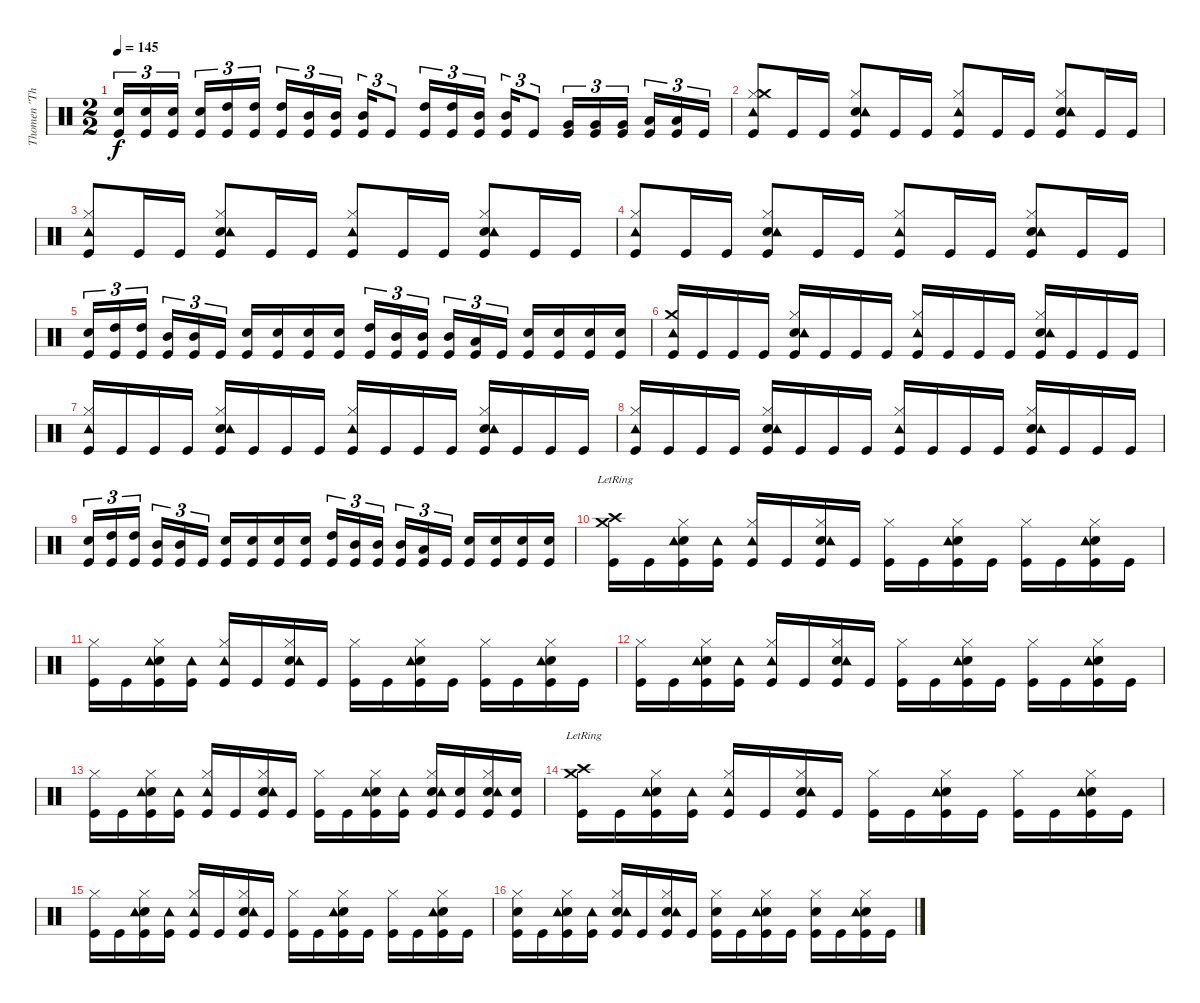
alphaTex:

\track ("Thomen \"The Omen\" Stauch" "Thomen \"Th") {instrument percussion}
\staff {score}
\articulation defaults
\ts (2 2)
\tempo 145
\clef neutral
\ks c
("Snare (hit) 2" "Kick (hit)").16{tu (3 2) dy f} ("Snare (hit) 2" "Kick (hit)").16{tu (3 2)} ("Snare (hit) 2" "Kick (hit)").16{tu (3 2)} ("Snare (hit) 2" "Kick (hit)").16{tu (3 2)} ("High Tom (hit)" "Kick (hit)").16{tu (3 2)} ("High Tom (hit)" "Kick (hit)").16{tu (3 2)} ("High Tom (hit)" "Kick (hit)").16{tu (3 2)} ("Mid Tom (hit)" "Kick (hit)").16{tu (3 2)} ("Mid Tom (hit)" "Kick (hit)").16{tu (3 2)} ("Mid Tom (hit)" "Kick (hit)").16{tu (3 2)} "Kick (hit)".8{tu (3 2)} ("High Tom (hit)" "Kick (hit)").16{tu (3 2)} ("High Tom (hit)" "Kick (hit)").16{tu (3 2)} ("Mid Tom (hit)" "Kick (hit)").16{tu (3 2)} ("Mid Tom (hit)" "Kick (hit)").16{tu (3 2)} "Kick (hit)".8{tu (3 2)} ("Very Low Tom (hit)" "Kick (hit)").16{tu (3 2)} ("Very Low Tom (hit)" "Kick (hit)").16{tu (3 2)} ("Very Low Tom (hit)" "Kick (hit)").16{tu (3 2)} ("Low Floor Tom (hit)" "Kick (hit)").16{tu (3 2)} ("Low Floor Tom (hit)" "Kick (hit)").16{tu (3 2)} "Kick (hit)".16{tu (3 2)} |
("Hi-Hat (closed)" "Crash medium (hit)" "Tambourine (hit)" "Kick (hit)").8 "Kick (hit)".16 "Kick (hit)".16 ("Hi-Hat (closed)" "Snare (hit) 2" "Tambourine (hit)" "Kick (hit)").8 "Kick (hit)".16 "Kick (hit)".16 ("Hi-Hat (closed)" "Tambourine (hit)" "Kick (hit)").8 "Kick (hit)".16 "Kick (hit)".16 ("Hi-Hat (closed)" "Snare (hit) 2" "Tambourine (hit)" "Kick (hit)").8 "Kick (hit)".16 "Kick (hit)".16 |
("Hi-Hat (closed)" "Tambourine (hit)" "Kick (hit)").8 "Kick (hit)".16 "Kick (hit)".16 ("Hi-Hat (closed)" "Snare (hit) 2" "Tambourine (hit)" "Kick (hit)").8 "Kick (hit)".16 "Kick (hit)".16 ("Hi-Hat (closed)" "Tambourine (hit)" "Kick (hit)").8 "Kick (hit)".16 "Kick (hit)".16 ("Hi-Hat (closed)" "Snare (hit) 2" "Tambourine (hit)" "Kick (hit)").8 "Kick (hit)".16 "Kick (hit)".16 |
("Hi-Hat (closed)" "Tambourine (hit)" "Kick (hit)").8 "Kick (hit)".16 "Kick (hit)".16 ("Hi-Hat (closed)" "Snare (hit) 2" "Tambourine (hit)" "Kick (hit)").8 "Kick (hit)".16 "Kick (hit)".16 ("Hi-Hat (closed)" "Tambourine (hit)" "Kick (hit)").8 "Kick (hit)".16 "Kick (hit)".16 ("Hi-Hat (closed)" "Snare (hit) 2" "Tambourine (hit)" "Kick (hit)").8 "Kick (hit)".16 "Kick (hit)".16 |
("Snare (hit) 2" "Kick (hit)").16{tu (3 2)} ("High Tom (hit)" "Kick (hit)").16{tu (3 2)} ("High Tom (hit)" "Kick (hit)").16{tu (3 2)} ("Mid Tom (hit)" "Kick (hit)").16{tu (3 2)} ("Mid Tom (hit)" "Kick (hit)").16{tu (3 2)} "Kick (hit)".16{tu (3 2)} ("Snare (hit) 2" "Kick (hit)").16 ("Snare (hit) 2" "Kick (hit)").16 ("Snare (hit) 2" "Kick (hit)").16 ("Snare (hit) 2" "Kick (hit)").16 ("High Tom (hit)" "Kick (hit)").16{tu (3 2)} ("Mid Tom (hit)" "Kick (hit)").16{tu (3 2)} ("Mid Tom (hit)" "Kick (hit)").16{tu (3 2)} ("Mid Tom (hit)" "Kick (hit)").16{tu (3 2)} ("Low Tom (hit)" "Kick (hit)").16{tu (3 2)} "Kick (hit)".16{tu (3 2)} ("Snare (hit) 2" "Kick (hit)").16 ("Snare (hit) 2" "Kick (hit)").16 ("Snare (hit) 2" "Kick (hit)").16 ("Snare (hit) 2" "Kick (hit)").16 |
("Crash medium (hit)" "Tambourine (hit)" "Kick (hit)").16 "Kick (hit)".16 "Kick (hit)".16 "Kick (hit)".16 ("Hi-Hat (closed)" "Snare (hit) 2" "Tambourine (hit)" "Kick (hit)").16 "Kick (hit)".16 "Kick (hit)".16 "Kick (hit)".16 ("Hi-Hat (closed)" "Tambourine (hit)" "Kick (hit)").16 "Kick (hit)".16 "Kick (hit)".16 "Kick (hit)".16 ("Hi-Hat (closed)" "Snare (hit) 2" "Tambourine (hit)" "Kick (hit)").16 "Kick (hit)".16 "Kick (hit)".16 "Kick (hit)".16 |
("Hi-Hat (closed)" "Tambourine (hit)" "Kick (hit)").16 "Kick (hit)".16 "Kick (hit)".16 "Kick (hit)".16 ("Hi-Hat (closed)" "Snare (hit) 2" "Tambourine (hit)" "Kick (hit)").16 "Kick (hit)".16 "Kick (hit)".16 "Kick (hit)".16 ("Hi-Hat (closed)" "Tambourine (hit)" "Kick (hit)").16 "Kick (hit)".16 "Kick (hit)".16 "Kick (hit)".16 ("Hi-Hat (closed)" "Snare (hit) 2" "Tambourine (hit)" "Kick (hit)").16 "Kick (hit)".16 "Kick (hit)".16 "Kick (hit)".16 |
("Hi-Hat (closed)" "Tambourine (hit)" "Kick (hit)").16 "Kick (hit)".16 "Kick (hit)".16 "Kick (hit)".16 ("Hi-Hat (closed)" "Snare (hit) 2" "Tambourine (hit)" "Kick (hit)").16 "Kick (hit)".16 "Kick (hit)".16 "Kick (hit)".16 ("Hi-Hat (closed)" "Tambourine (hit)" "Kick (hit)").16 "Kick (hit)".16 "Kick (hit)".16 "Kick (hit)".16 ("Hi-Hat (closed)" "Snare (hit) 2" "Tambourine (hit)" "Kick (hit)").16 "Kick (hit)".16 "Kick (hit)".16 "Kick (hit)".16 |
("Snare (hit) 2" "Kick (hit)").16{tu (3 2)} ("High Tom (hit)" "Kick (hit)").16{tu (3 2)} ("High Tom (hit)" "Kick (hit)").16{tu (3 2)} ("Mid Tom (hit)" "Kick (hit)").16{tu (3 2)} ("Mid Tom (hit)" "Kick (hit)").16{tu (3 2)} "Kick (hit)".16{tu (3 2)} ("Snare (hit) 2" "Kick (hit)").16 ("Snare (hit) 2" "Kick (hit)").16 ("Snare (hit) 2" "Kick (hit)").16 ("Snare (hit) 2" "Kick (hit)").16 ("High Tom (hit)" "Kick (hit)").16{tu (3 2)} ("Mid Tom (hit)" "Kick (hit)").16{tu (3 2)} ("Mid Tom (hit)" "Kick (hit)").16{tu (3 2)} ("Mid Tom (hit)" "Kick (hit)").16{tu (3 2)} ("Low Tom (hit)" "Kick (hit)").16{tu (3 2)} "Kick (hit)".16{tu (3 2)} ("Snare (hit) 2" "Kick (hit)").16 ("Snare (hit) 2" "Kick (hit)").16 ("Snare (hit) 2" "Kick (hit)").16 ("Snare (hit) 2" "Kick (hit)").16 |
("Crash medium (hit)"{lr} "Crash high (hit)"{lr} "Kick (hit)").16 "Kick (hit)".16 ("Hi-Hat (closed)" "Snare (hit) 2" "Tambourine (hit)" "Kick (hit)").16 ("Tambourine (hit)" "Kick (hit)").16 ("Hi-Hat (closed)" "Tambourine (hit)" "Kick (hit)").16 "Kick (hit)".16 ("Hi-Hat (closed)" "Snare (hit) 2" "Tambourine (hit)" "Kick (hit)").16 "Kick (hit)".16 ("Hi-Hat (closed)" "Kick (hit)").16 "Kick (hit)".16 ("Hi-Hat (closed)" "Snare (hit) 2" "Tambourine (hit)" "Kick (hit)").16 "Kick (hit)".16 ("Hi-Hat (closed)" "Kick (hit)").16 "Kick (hit)".16 ("Hi-Hat (closed)" "Snare (hit) 2" "Tambourine (hit)" "Kick (hit)").16 "Kick (hit)".16 |
("Hi-Hat (closed)" "Kick (hit)").16 "Kick (hit)".16 ("Hi-Hat (closed)" "Snare (hit) 2" "Tambourine (hit)" "Kick (hit)").16 ("Tambourine (hit)" "Kick (hit)").16 ("Hi-Hat (closed)" "Tambourine (hit)" "Kick (hit)").16 "Kick (hit)".16 ("Hi-Hat (closed)" "Snare (hit) 2" "Tambourine (hit)" "Kick (hit)").16 "Kick (hit)".16 ("Hi-Hat (closed)" "Kick (hit)").16 "Kick (hit)".16 ("Hi-Hat (closed)" "Snare (hit) 2" "Tambourine (hit)" "Kick (hit)").16 "Kick (hit)".16 ("Hi-Hat (closed)" "Kick (hit)").16 "Kick (hit)".16 ("Hi-Hat (closed)" "Snare (hit) 2" "Tambourine (hit)" "Kick (hit)").16 "Kick (hit)".16 |
("Hi-Hat (closed)" "Kick (hit)").16 "Kick (hit)".16 ("Hi-Hat (closed)" "Snare (hit) 2" "Tambourine (hit)" "Kick (hit)").16 ("Tambourine (hit)" "Kick (hit)").16 ("Hi-Hat (closed)" "Tambourine (hit)" "Kick (hit)").16 "Kick (hit)".16 ("Hi-Hat (closed)" "Snare (hit) 2" "Tambourine (hit)" "Kick (hit)").16 "Kick (hit)".16 ("Hi-Hat (closed)" "Kick (hit)").16 "Kick (hit)".16 ("Hi-Hat (closed)" "Snare (hit) 2" "Tambourine (hit)" "Kick (hit)").16 "Kick (hit)".16 ("Hi-Hat (closed)" "Kick (hit)").16 "Kick (hit)".16 ("Hi-Hat (closed)" "Snare (hit) 2" "Tambourine (hit)" "Kick (hit)").16 "Kick (hit)".16 |
("Hi-Hat (closed)" "Kick (hit)").16 "Kick (hit)".16 ("Hi-Hat (closed)" "Snare (hit) 2" "Tambourine (hit)" "Kick (hit)").16 ("Tambourine (hit)" "Kick (hit)").16 ("Hi-Hat (closed)" "Tambourine (hit)" "Kick (hit)").16 "Kick (hit)".16 ("Hi-Hat (closed)" "Snare (hit) 2" "Tambourine (hit)" "Kick (hit)").16 "Kick (hit)".16 ("Hi-Hat (closed)" "Kick (hit)").16 "Kick (hit)".16 ("Hi-Hat (closed)" "Snare (hit) 2" "Tambourine (hit)" "Kick (hit)").16 ("Tambourine (hit)" "Kick (hit)").16 ("Hi-Hat (closed)" "Snare (hit) 2" "Tambourine (hit)" "Kick (hit)").16 ("Snare (hit) 2" "Kick (hit)").16 ("Hi-Hat (closed)" "Snare (hit) 2" "Tambourine (hit)" "Kick (hit)").16 ("Snare (hit) 2" "Kick (hit)").16 |
("Crash medium (hit)"{lr} "Crash high (hit)" "Kick (hit)").16 "Kick (hit)".16 ("Hi-Hat (closed)" "Snare (hit) 2" "Tambourine (hit)" "Kick (hit)").16 ("Tambourine (hit)" "Kick (hit)").16 ("Hi-Hat (closed)" "Tambourine (hit)" "Kick (hit)").16 "Kick (hit)".16 ("Hi-Hat (closed)" "Snare (hit) 2" "Tambourine (hit)" "Kick (hit)").16 "Kick (hit)".16 ("Hi-Hat (closed)" "Kick (hit)").16 "Kick (hit)".16 ("Hi-Hat (closed)" "Snare (hit) 2" "Tambourine (hit)" "Kick (hit)").16 "Kick (hit)".16 ("Hi-Hat (closed)" "Kick (hit)").16 "Kick (hit)".16 ("Hi-Hat (closed)" "Snare (hit) 2" "Tambourine (hit)" "Kick (hit)").16 "Kick (hit)".16 |
("Hi-Hat (closed)" "Kick (hit)").16 "Kick (hit)".16 ("Hi-Hat (closed)" "Snare (hit) 2" "Tambourine (hit)" "Kick (hit)").16 ("Tambourine (hit)" "Kick (hit)").16 ("Hi-Hat (closed)" "Tambourine (hit)" "Kick (hit)").16 "Kick (hit)".16 ("Hi-Hat (closed)" "Snare (hit) 2" "Tambourine (hit)" "Kick (hit)").16 "Kick (hit)".16 ("Hi-Hat (closed)" "Kick (hit)").16 "Kick (hit)".16 ("Hi-Hat (closed)" "Snare (hit) 2" "Tambourine (hit)" "Kick (hit)").16 "Kick (hit)".16 ("Hi-Hat (closed)" "Kick (hit)").16 "Kick (hit)".16 ("Hi-Hat (closed)" "Snare (hit) 2" "Tambourine (hit)" "Kick (hit)").16 "Kick (hit)".16 |
("Hi-Hat (closed)" "Snare (hit) 2" "Kick (hit)").16 "Kick (hit)".16 ("Hi-Hat (closed)" "Snare (hit) 2" "Tambourine (hit)" "Kick (hit)").16 ("Tambourine (hit)" "Kick (hit)").16 ("Hi-Hat (closed)" "Snare (hit) 2" "Tambourine (hit)" "Kick (hit)").16 "Kick (hit)".16 ("Hi-Hat (closed)" "Snare (hit) 2" "Tambourine (hit)" "Kick (hit)").16 "Kick (hit)".16 ("Hi-Hat (closed)" "Snare (hit) 2" "Kick (hit)").16 "Kick (hit)".16 ("Hi-Hat (closed)" "Snare (hit) 2" "Tambourine (hit)" "Kick (hit)").16 "Kick (hit)".16 ("Hi-Hat (closed)" "Snare (hit) 2" "Kick (hit)").16 "Kick (hit)".16 ("Hi-Hat (closed)" "Snare (hit) 2" "Tambourine (hit)" "Kick (hit)").16 "Kick (hit)".16
